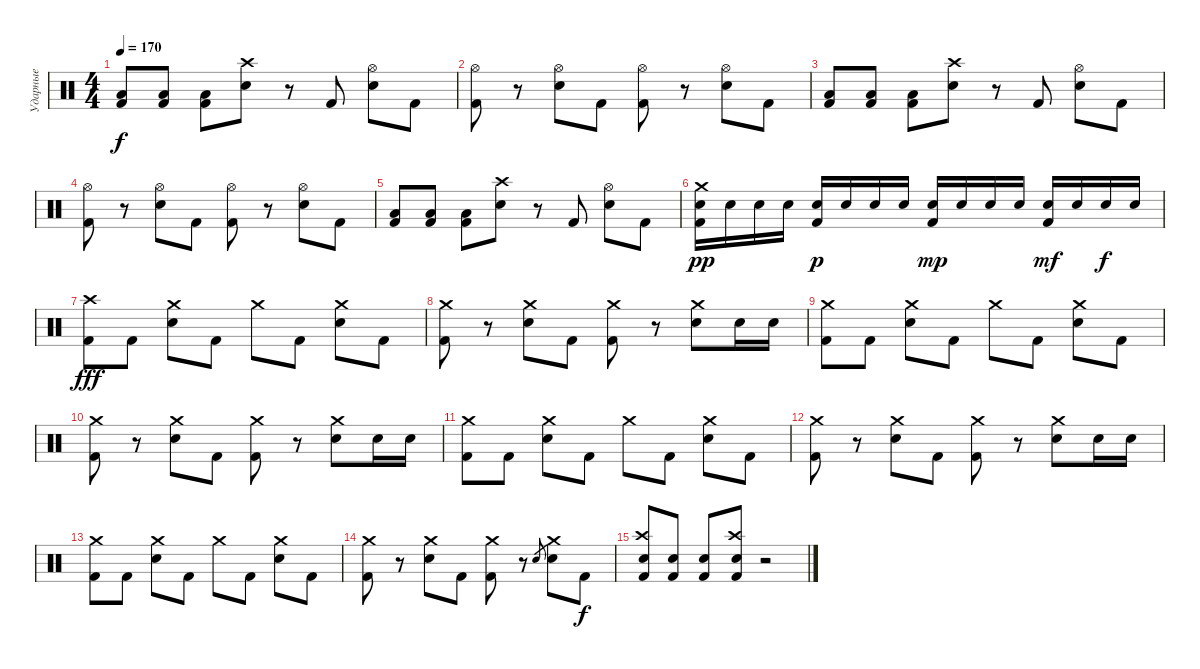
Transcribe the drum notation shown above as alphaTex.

\track ("Ударные" "Ударные") {instrument percussion}
\staff {score}
\articulation defaults
\ts (4 4)
\tempo 170
\clef neutral
\ks c
("Low Tom (hit)" "Kick (hit) 2").8{dy f} ("Low Tom (hit)" "Kick (hit) 2").8 ("Low Tom (hit)" "Kick (hit) 2").8 ("Crash high (hit)" "Electric Snare (hit)").8 r.8 "Kick (hit) 2".8 ("Hi-Hat (open)" "Electric Snare (hit)").8 "Kick (hit) 2".8 |
("Hi-Hat (open)" "Kick (hit) 2").8 r.8 ("Hi-Hat (open)" "Electric Snare (hit)").8 "Kick (hit) 2".8 ("Hi-Hat (open)" "Kick (hit) 2").8 r.8 ("Hi-Hat (open)" "Electric Snare (hit)").8 "Kick (hit) 2".8 |
("Low Tom (hit)" "Kick (hit) 2").8 ("Low Tom (hit)" "Kick (hit) 2").8 ("Low Tom (hit)" "Kick (hit) 2").8 ("Crash high (hit)" "Electric Snare (hit)").8 r.8 "Kick (hit) 2".8 ("Hi-Hat (open)" "Electric Snare (hit)").8 "Kick (hit) 2".8 |
("Hi-Hat (open)" "Kick (hit) 2").8 r.8 ("Hi-Hat (open)" "Electric Snare (hit)").8 "Kick (hit) 2".8 ("Hi-Hat (open)" "Kick (hit) 2").8 r.8 ("Hi-Hat (open)" "Electric Snare (hit)").8 "Kick (hit) 2".8 |
("Low Tom (hit)" "Kick (hit) 2").8 ("Low Tom (hit)" "Kick (hit) 2").8 ("Low Tom (hit)" "Kick (hit) 2").8 ("Crash high (hit)" "Electric Snare (hit)").8 r.8 "Kick (hit) 2".8 ("Hi-Hat (open)" "Electric Snare (hit)").8 "Kick (hit) 2".8 |
("Crash medium (hit)" "Electric Snare (hit)" "Kick (hit) 2").16{dy pp} "Electric Snare (hit)".16 "Electric Snare (hit)".16 "Electric Snare (hit)".16 ("Electric Snare (hit)" "Kick (hit) 2").16{dy p} "Electric Snare (hit)".16 "Electric Snare (hit)".16 "Electric Snare (hit)".16 ("Electric Snare (hit)" "Kick (hit) 2").16{dy mp} "Electric Snare (hit)".16 "Electric Snare (hit)".16 "Electric Snare (hit)".16 ("Electric Snare (hit)" "Kick (hit) 2").16{dy mf} "Electric Snare (hit)".16 "Electric Snare (hit)".16{dy f} "Electric Snare (hit)".16 |
("Crash high (hit)" "Kick (hit) 2").8{dy fff} "Kick (hit) 2".8 ("Crash medium (hit)" "Electric Snare (hit)").8 "Kick (hit) 2".8 "Crash medium (hit)".8 "Kick (hit) 2".8 ("Crash medium (hit)" "Electric Snare (hit)").8 "Kick (hit) 2".8 |
("Crash medium (hit)" "Kick (hit) 2").8 r.8 ("Crash medium (hit)" "Electric Snare (hit)").8 "Kick (hit) 2".8 ("Crash medium (hit)" "Kick (hit) 2").8 r.8 ("Crash medium (hit)" "Electric Snare (hit)").8 "Electric Snare (hit)".16 "Electric Snare (hit)".16 |
("Crash medium (hit)" "Kick (hit) 2").8 "Kick (hit) 2".8 ("Crash medium (hit)" "Electric Snare (hit)").8 "Kick (hit) 2".8 "Crash medium (hit)".8 "Kick (hit) 2".8 ("Crash medium (hit)" "Electric Snare (hit)").8 "Kick (hit) 2".8 |
("Crash medium (hit)" "Kick (hit) 2").8 r.8 ("Crash medium (hit)" "Electric Snare (hit)").8 "Kick (hit) 2".8 ("Crash medium (hit)" "Kick (hit) 2").8 r.8 ("Crash medium (hit)" "Electric Snare (hit)").8 "Electric Snare (hit)".16 "Electric Snare (hit)".16 |
("Crash medium (hit)" "Kick (hit) 2").8 "Kick (hit) 2".8 ("Crash medium (hit)" "Electric Snare (hit)").8 "Kick (hit) 2".8 "Crash medium (hit)".8 "Kick (hit) 2".8 ("Crash medium (hit)" "Electric Snare (hit)").8 "Kick (hit) 2".8 |
("Crash medium (hit)" "Kick (hit) 2").8 r.8 ("Crash medium (hit)" "Electric Snare (hit)").8 "Kick (hit) 2".8 ("Crash medium (hit)" "Kick (hit) 2").8 r.8 ("Crash medium (hit)" "Electric Snare (hit)").8 "Electric Snare (hit)".16 "Electric Snare (hit)".16 |
("Crash medium (hit)" "Kick (hit) 2").8 "Kick (hit) 2".8 ("Crash medium (hit)" "Electric Snare (hit)").8 "Kick (hit) 2".8 "Crash medium (hit)".8 "Kick (hit) 2".8 ("Crash medium (hit)" "Electric Snare (hit)").8 "Kick (hit) 2".8 |
("Crash medium (hit)" "Kick (hit) 2").8 r.8 ("Crash medium (hit)" "Electric Snare (hit)").8 "Kick (hit) 2".8 ("Crash medium (hit)" "Kick (hit) 2").8 r.8 "Electric Snare (hit)".8{gr} ("Crash medium (hit)" "Electric Snare (hit)").8 "Kick (hit) 2".8{dy f} |
("Crash high (hit)" "Electric Snare (hit)" "Kick (hit) 2").8 ("Electric Snare (hit)" "Kick (hit) 2").8 ("Electric Snare (hit)" "Kick (hit) 2").8 ("Crash high (hit)" "Electric Snare (hit)" "Kick (hit) 2").8 r.2
